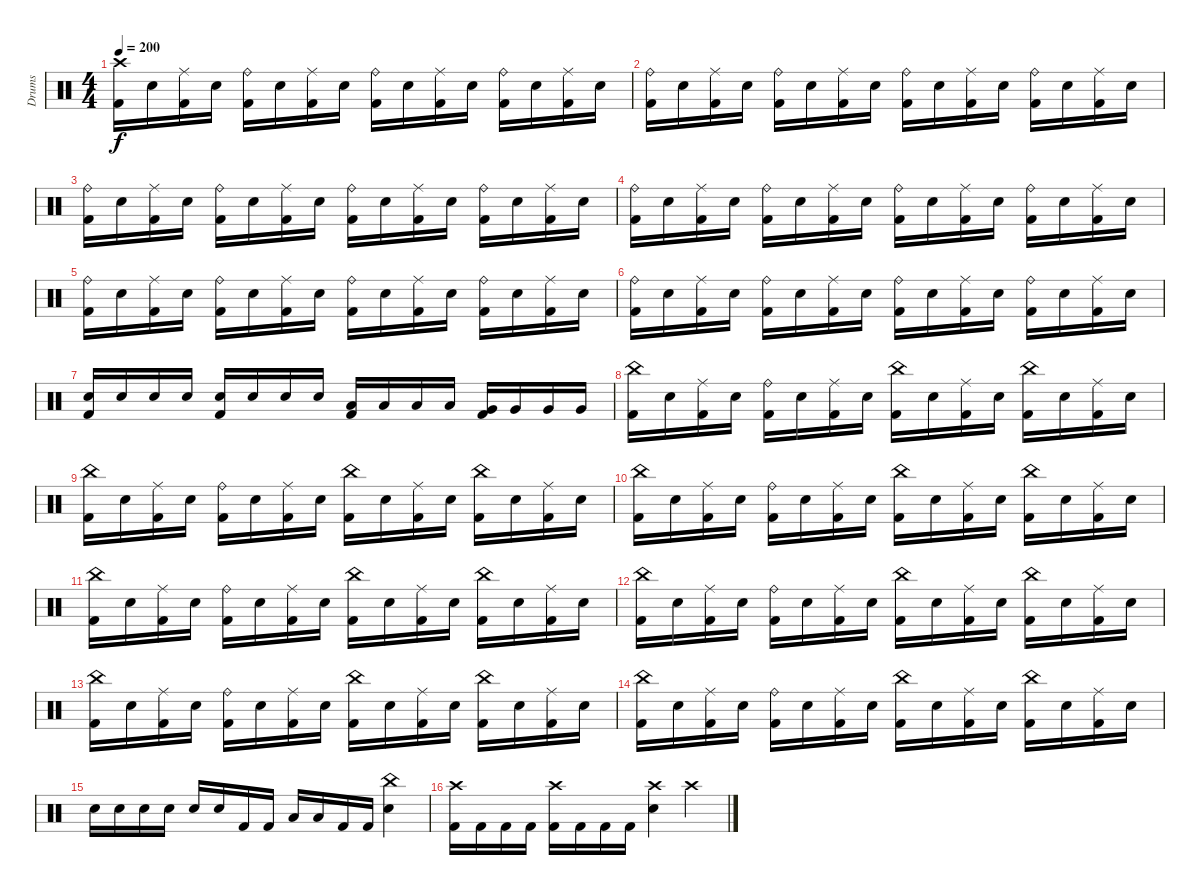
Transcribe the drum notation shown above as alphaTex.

\track ("Drums" "Drums") {instrument percussion}
\staff {score}
\articulation defaults
\ts (4 4)
\tempo 200
\clef neutral
\ks c
("Crash high (hit)" "Kick (hit) 2").16{dy f volume 16} "Electric Snare (hit)".16 ("Ride (middle)" "Kick (hit) 2").16 "Electric Snare (hit)".16 ("Ride (bell)" "Kick (hit) 2").16 "Electric Snare (hit)".16 ("Ride (middle)" "Kick (hit) 2").16 "Electric Snare (hit)".16 ("Ride (bell)" "Kick (hit) 2").16 "Electric Snare (hit)".16 ("Ride (middle)" "Kick (hit) 2").16 "Electric Snare (hit)".16 ("Ride (bell)" "Kick (hit) 2").16 "Electric Snare (hit)".16 ("Ride (middle)" "Kick (hit) 2").16 "Electric Snare (hit)".16 |
("Ride (bell)" "Kick (hit) 2").16 "Electric Snare (hit)".16 ("Ride (middle)" "Kick (hit) 2").16 "Electric Snare (hit)".16 ("Ride (bell)" "Kick (hit) 2").16 "Electric Snare (hit)".16 ("Ride (middle)" "Kick (hit) 2").16 "Electric Snare (hit)".16 ("Ride (bell)" "Kick (hit) 2").16 "Electric Snare (hit)".16 ("Ride (middle)" "Kick (hit) 2").16 "Electric Snare (hit)".16 ("Ride (bell)" "Kick (hit) 2").16 "Electric Snare (hit)".16 ("Ride (middle)" "Kick (hit) 2").16 "Electric Snare (hit)".16 |
("Ride (bell)" "Kick (hit) 2").16 "Electric Snare (hit)".16 ("Ride (middle)" "Kick (hit) 2").16 "Electric Snare (hit)".16 ("Ride (bell)" "Kick (hit) 2").16 "Electric Snare (hit)".16 ("Ride (middle)" "Kick (hit) 2").16 "Electric Snare (hit)".16 ("Ride (bell)" "Kick (hit) 2").16 "Electric Snare (hit)".16 ("Ride (middle)" "Kick (hit) 2").16 "Electric Snare (hit)".16 ("Ride (bell)" "Kick (hit) 2").16 "Electric Snare (hit)".16 ("Ride (middle)" "Kick (hit) 2").16 "Electric Snare (hit)".16 |
("Ride (bell)" "Kick (hit) 2").16 "Electric Snare (hit)".16 ("Ride (middle)" "Kick (hit) 2").16 "Electric Snare (hit)".16 ("Ride (bell)" "Kick (hit) 2").16 "Electric Snare (hit)".16 ("Ride (middle)" "Kick (hit) 2").16 "Electric Snare (hit)".16 ("Ride (bell)" "Kick (hit) 2").16 "Electric Snare (hit)".16 ("Ride (middle)" "Kick (hit) 2").16 "Electric Snare (hit)".16 ("Ride (bell)" "Kick (hit) 2").16 "Electric Snare (hit)".16 ("Ride (middle)" "Kick (hit) 2").16 "Electric Snare (hit)".16 |
("Ride (bell)" "Kick (hit) 2").16 "Electric Snare (hit)".16 ("Ride (middle)" "Kick (hit) 2").16 "Electric Snare (hit)".16 ("Ride (bell)" "Kick (hit) 2").16 "Electric Snare (hit)".16 ("Ride (middle)" "Kick (hit) 2").16 "Electric Snare (hit)".16 ("Ride (bell)" "Kick (hit) 2").16 "Electric Snare (hit)".16 ("Ride (middle)" "Kick (hit) 2").16 "Electric Snare (hit)".16 ("Ride (bell)" "Kick (hit) 2").16 "Electric Snare (hit)".16 ("Ride (middle)" "Kick (hit) 2").16 "Electric Snare (hit)".16 |
("Ride (bell)" "Kick (hit) 2").16 "Electric Snare (hit)".16 ("Ride (middle)" "Kick (hit) 2").16 "Electric Snare (hit)".16 ("Ride (bell)" "Kick (hit) 2").16 "Electric Snare (hit)".16 ("Ride (middle)" "Kick (hit) 2").16 "Electric Snare (hit)".16 ("Ride (bell)" "Kick (hit) 2").16 "Electric Snare (hit)".16 ("Ride (middle)" "Kick (hit) 2").16 "Electric Snare (hit)".16 ("Ride (bell)" "Kick (hit) 2").16 "Electric Snare (hit)".16 ("Ride (middle)" "Kick (hit) 2").16 "Electric Snare (hit)".16 |
("Electric Snare (hit)" "Kick (hit) 2").16 "Electric Snare (hit)".16 "Electric Snare (hit)".16 "Electric Snare (hit)".16 ("Electric Snare (hit)" "Kick (hit) 2").16 "Electric Snare (hit)".16 "Electric Snare (hit)".16 "Electric Snare (hit)".16 ("Low Tom (hit)" "Kick (hit) 2").16 "Low Tom (hit)".16 "Low Tom (hit)".16 "Low Tom (hit)".16 ("Very Low Tom (hit)" "Kick (hit) 2").16 "Very Low Tom (hit)".16 "Very Low Tom (hit)".16 "Very Low Tom (hit)".16 |
("China (hit)" "Kick (hit) 2").16 "Electric Snare (hit)".16 ("Ride (middle)" "Kick (hit) 2").16 "Electric Snare (hit)".16 ("Ride (bell)" "Kick (hit) 2").16 "Electric Snare (hit)".16 ("Ride (middle)" "Kick (hit) 2").16 "Electric Snare (hit)".16 ("China (hit)" "Kick (hit) 2").16 "Electric Snare (hit)".16 ("Ride (middle)" "Kick (hit) 2").16 "Electric Snare (hit)".16 ("China (hit)" "Kick (hit) 2").16 "Electric Snare (hit)".16 ("Ride (middle)" "Kick (hit) 2").16 "Electric Snare (hit)".16 |
("China (hit)" "Kick (hit) 2").16 "Electric Snare (hit)".16 ("Ride (middle)" "Kick (hit) 2").16 "Electric Snare (hit)".16 ("Ride (bell)" "Kick (hit) 2").16 "Electric Snare (hit)".16 ("Ride (middle)" "Kick (hit) 2").16 "Electric Snare (hit)".16 ("China (hit)" "Kick (hit) 2").16 "Electric Snare (hit)".16 ("Ride (middle)" "Kick (hit) 2").16 "Electric Snare (hit)".16 ("China (hit)" "Kick (hit) 2").16 "Electric Snare (hit)".16 ("Ride (middle)" "Kick (hit) 2").16 "Electric Snare (hit)".16 |
("China (hit)" "Kick (hit) 2").16 "Electric Snare (hit)".16 ("Ride (middle)" "Kick (hit) 2").16 "Electric Snare (hit)".16 ("Ride (bell)" "Kick (hit) 2").16 "Electric Snare (hit)".16 ("Ride (middle)" "Kick (hit) 2").16 "Electric Snare (hit)".16 ("China (hit)" "Kick (hit) 2").16 "Electric Snare (hit)".16 ("Ride (middle)" "Kick (hit) 2").16 "Electric Snare (hit)".16 ("China (hit)" "Kick (hit) 2").16 "Electric Snare (hit)".16 ("Ride (middle)" "Kick (hit) 2").16 "Electric Snare (hit)".16 |
("China (hit)" "Kick (hit) 2").16 "Electric Snare (hit)".16 ("Ride (middle)" "Kick (hit) 2").16 "Electric Snare (hit)".16 ("Ride (bell)" "Kick (hit) 2").16 "Electric Snare (hit)".16 ("Ride (middle)" "Kick (hit) 2").16 "Electric Snare (hit)".16 ("China (hit)" "Kick (hit) 2").16 "Electric Snare (hit)".16 ("Ride (middle)" "Kick (hit) 2").16 "Electric Snare (hit)".16 ("China (hit)" "Kick (hit) 2").16 "Electric Snare (hit)".16 ("Ride (middle)" "Kick (hit) 2").16 "Electric Snare (hit)".16 |
("China (hit)" "Kick (hit) 2").16 "Electric Snare (hit)".16 ("Ride (middle)" "Kick (hit) 2").16 "Electric Snare (hit)".16 ("Ride (bell)" "Kick (hit) 2").16 "Electric Snare (hit)".16 ("Ride (middle)" "Kick (hit) 2").16 "Electric Snare (hit)".16 ("China (hit)" "Kick (hit) 2").16 "Electric Snare (hit)".16 ("Ride (middle)" "Kick (hit) 2").16 "Electric Snare (hit)".16 ("China (hit)" "Kick (hit) 2").16 "Electric Snare (hit)".16 ("Ride (middle)" "Kick (hit) 2").16 "Electric Snare (hit)".16 |
("China (hit)" "Kick (hit) 2").16 "Electric Snare (hit)".16 ("Ride (middle)" "Kick (hit) 2").16 "Electric Snare (hit)".16 ("Ride (bell)" "Kick (hit) 2").16 "Electric Snare (hit)".16 ("Ride (middle)" "Kick (hit) 2").16 "Electric Snare (hit)".16 ("China (hit)" "Kick (hit) 2").16 "Electric Snare (hit)".16 ("Ride (middle)" "Kick (hit) 2").16 "Electric Snare (hit)".16 ("China (hit)" "Kick (hit) 2").16 "Electric Snare (hit)".16 ("Ride (middle)" "Kick (hit) 2").16 "Electric Snare (hit)".16 |
("China (hit)" "Kick (hit) 2").16 "Electric Snare (hit)".16 ("Ride (middle)" "Kick (hit) 2").16 "Electric Snare (hit)".16 ("Ride (bell)" "Kick (hit) 2").16 "Electric Snare (hit)".16 ("Ride (middle)" "Kick (hit) 2").16 "Electric Snare (hit)".16 ("China (hit)" "Kick (hit) 2").16 "Electric Snare (hit)".16 ("Ride (middle)" "Kick (hit) 2").16 "Electric Snare (hit)".16 ("China (hit)" "Kick (hit) 2").16 "Electric Snare (hit)".16 ("Ride (middle)" "Kick (hit) 2").16 "Electric Snare (hit)".16 |
"Electric Snare (hit)".16 "Electric Snare (hit)".16 "Electric Snare (hit)".16 "Electric Snare (hit)".16 "Electric Snare (hit)".16 "Electric Snare (hit)".16 "Kick (hit) 2".16 "Kick (hit) 2".16 "Low Tom (hit)".16 "Low Tom (hit)".16 "Kick (hit) 2".16 "Kick (hit) 2".16 ("China (hit)" "Electric Snare (hit)").4 |
("Crash high (hit)" "Kick (hit) 2").16 "Kick (hit) 2".16 "Kick (hit) 2".16 "Kick (hit) 2".16 ("Crash high (hit)" "Kick (hit) 2").16 "Kick (hit) 2".16 "Kick (hit) 2".16 "Kick (hit) 2".16 ("Crash high (hit)" "Electric Snare (hit)").4 "Crash high (hit)".4
